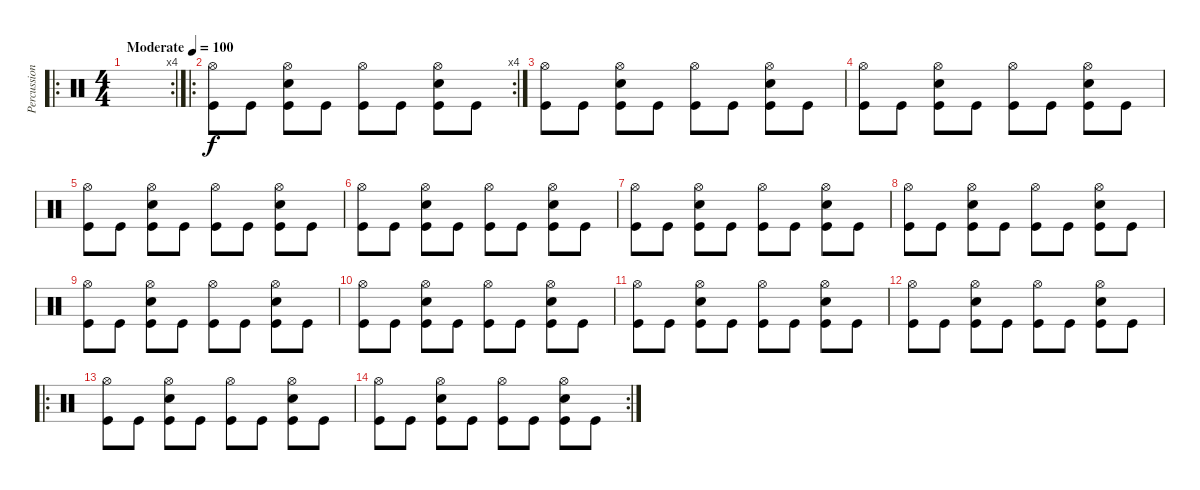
\track ("Percussion" "Percussion") {instrument percussion}
\staff {score}
\articulation defaults
\ro
\rc 4
\ts (4 4)
\tempo (100 "Moderate")
\clef neutral
\ks c
|
\ro
\rc 4
("Hi-Hat (open)" "Kick (hit)").8 "Kick (hit)".8 ("Hi-Hat (open)" "Electric Snare (hit)" "Kick (hit)").8 "Kick (hit)".8 ("Hi-Hat (open)" "Kick (hit)").8 "Kick (hit)".8 ("Hi-Hat (open)" "Electric Snare (hit)" "Kick (hit)").8 "Kick (hit)".8 |
("Hi-Hat (open)" "Kick (hit)").8 "Kick (hit)".8 ("Hi-Hat (open)" "Electric Snare (hit)" "Kick (hit)").8 "Kick (hit)".8 ("Hi-Hat (open)" "Kick (hit)").8 "Kick (hit)".8 ("Hi-Hat (open)" "Electric Snare (hit)" "Kick (hit)").8 "Kick (hit)".8 |
("Hi-Hat (open)" "Kick (hit)").8 "Kick (hit)".8 ("Hi-Hat (open)" "Electric Snare (hit)" "Kick (hit)").8 "Kick (hit)".8 ("Hi-Hat (open)" "Kick (hit)").8 "Kick (hit)".8 ("Hi-Hat (open)" "Electric Snare (hit)" "Kick (hit)").8 "Kick (hit)".8 |
("Hi-Hat (open)" "Kick (hit)").8 "Kick (hit)".8 ("Hi-Hat (open)" "Electric Snare (hit)" "Kick (hit)").8 "Kick (hit)".8 ("Hi-Hat (open)" "Kick (hit)").8 "Kick (hit)".8 ("Hi-Hat (open)" "Electric Snare (hit)" "Kick (hit)").8 "Kick (hit)".8 |
("Hi-Hat (open)" "Kick (hit)").8 "Kick (hit)".8 ("Hi-Hat (open)" "Electric Snare (hit)" "Kick (hit)").8 "Kick (hit)".8 ("Hi-Hat (open)" "Kick (hit)").8 "Kick (hit)".8 ("Hi-Hat (open)" "Electric Snare (hit)" "Kick (hit)").8 "Kick (hit)".8 |
("Hi-Hat (open)" "Kick (hit)").8 "Kick (hit)".8 ("Hi-Hat (open)" "Electric Snare (hit)" "Kick (hit)").8 "Kick (hit)".8 ("Hi-Hat (open)" "Kick (hit)").8 "Kick (hit)".8 ("Hi-Hat (open)" "Electric Snare (hit)" "Kick (hit)").8 "Kick (hit)".8 |
("Hi-Hat (open)" "Kick (hit)").8 "Kick (hit)".8 ("Hi-Hat (open)" "Electric Snare (hit)" "Kick (hit)").8 "Kick (hit)".8 ("Hi-Hat (open)" "Kick (hit)").8 "Kick (hit)".8 ("Hi-Hat (open)" "Electric Snare (hit)" "Kick (hit)").8 "Kick (hit)".8 |
("Hi-Hat (open)" "Kick (hit)").8 "Kick (hit)".8 ("Hi-Hat (open)" "Electric Snare (hit)" "Kick (hit)").8 "Kick (hit)".8 ("Hi-Hat (open)" "Kick (hit)").8 "Kick (hit)".8 ("Hi-Hat (open)" "Electric Snare (hit)" "Kick (hit)").8 "Kick (hit)".8 |
("Hi-Hat (open)" "Kick (hit)").8 "Kick (hit)".8 ("Hi-Hat (open)" "Electric Snare (hit)" "Kick (hit)").8 "Kick (hit)".8 ("Hi-Hat (open)" "Kick (hit)").8 "Kick (hit)".8 ("Hi-Hat (open)" "Electric Snare (hit)" "Kick (hit)").8 "Kick (hit)".8 |
("Hi-Hat (open)" "Kick (hit)").8 "Kick (hit)".8 ("Hi-Hat (open)" "Electric Snare (hit)" "Kick (hit)").8 "Kick (hit)".8 ("Hi-Hat (open)" "Kick (hit)").8 "Kick (hit)".8 ("Hi-Hat (open)" "Electric Snare (hit)" "Kick (hit)").8 "Kick (hit)".8 |
("Hi-Hat (open)" "Kick (hit)").8 "Kick (hit)".8 ("Hi-Hat (open)" "Electric Snare (hit)" "Kick (hit)").8 "Kick (hit)".8 ("Hi-Hat (open)" "Kick (hit)").8 "Kick (hit)".8 ("Hi-Hat (open)" "Electric Snare (hit)" "Kick (hit)").8 "Kick (hit)".8 |
\ro
("Hi-Hat (open)" "Kick (hit)").8 "Kick (hit)".8 ("Hi-Hat (open)" "Electric Snare (hit)" "Kick (hit)").8 "Kick (hit)".8 ("Hi-Hat (open)" "Kick (hit)").8 "Kick (hit)".8 ("Hi-Hat (open)" "Electric Snare (hit)" "Kick (hit)").8 "Kick (hit)".8 |
\rc 2
("Hi-Hat (open)" "Kick (hit)").8 "Kick (hit)".8 ("Hi-Hat (open)" "Electric Snare (hit)" "Kick (hit)").8 "Kick (hit)".8 ("Hi-Hat (open)" "Kick (hit)").8 "Kick (hit)".8 ("Hi-Hat (open)" "Electric Snare (hit)" "Kick (hit)").8 "Kick (hit)".8
